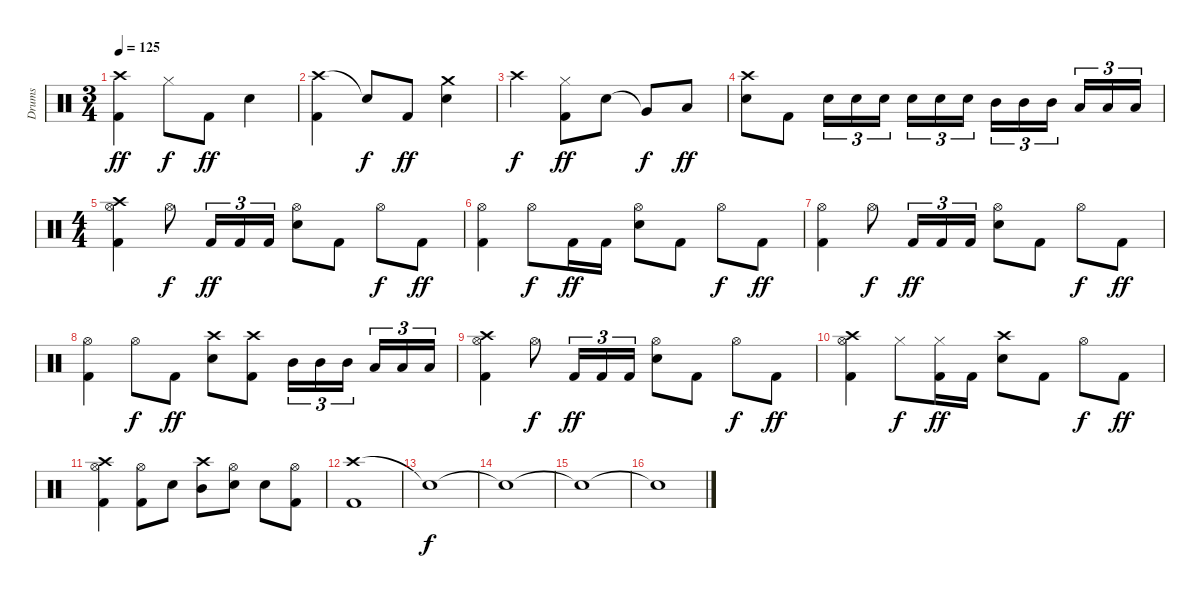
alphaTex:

\track ("Drums" "Drums") {instrument percussion}
\staff {score}
\articulation defaults
\ts (3 4)
\section ("" "")
\tempo 125
\clef neutral
\ks c
("Crash high (hit)" "Kick (hit) 2").4{dy ff} "Hi-Hat (closed)".8{dy f} "Kick (hit) 2".8{dy ff} "Snare (hit) 2".4 |
("Crash high (hit)" "Kick (hit) 2").4 "Snare (hit)"{t}.8{dy f} "Kick (hit) 2".8{dy ff} ("Crash medium (hit)" "Snare (hit) 2").4 |
"Crash high (hit)".4{dy f} ("Hi-Hat (closed)" "Kick (hit) 2").8{dy ff} "Snare (hit) 2".8 "Very Low Tom (hit)"{t}.8{dy f} "Low Floor Tom (hit)".8{dy ff} |
("Crash high (hit)" "Snare (hit) 2").8 "Kick (hit) 2".8 "Snare (hit) 2".16{tu (3 2)} "Snare (hit) 2".16{tu (3 2)} "Snare (hit) 2".16{tu (3 2) beam splitsecondary} "Snare (hit) 2".16{tu (3 2)} "Snare (hit) 2".16{tu (3 2)} "Snare (hit) 2".16{tu (3 2)} "Mid Tom (hit)".16{tu (3 2)} "Mid Tom (hit)".16{tu (3 2)} "Mid Tom (hit)".16{tu (3 2) beam splitsecondary} "Low Tom (hit)".16{tu (3 2)} "Low Tom (hit)".16{tu (3 2)} "Low Tom (hit)".16{tu (3 2)} |
\ts (4 4)
("Crash high (hit)" "Hi-Hat (open)" "Kick (hit) 2").4 "Hi-Hat (open)".8{dy f} "Kick (hit) 2".16{tu (3 2) dy ff} "Kick (hit) 2".16{tu (3 2)} "Kick (hit) 2".16{tu (3 2)} ("Hi-Hat (open)" "Snare (hit) 2").8 "Kick (hit) 2".8 "Hi-Hat (open)".8{dy f} "Kick (hit) 2".8{dy ff} |
("Hi-Hat (open)" "Kick (hit) 2").4 "Hi-Hat (open)".8{dy f} "Kick (hit) 2".16{dy ff} "Kick (hit) 2".16 ("Hi-Hat (open)" "Snare (hit) 2").8 "Kick (hit) 2".8 "Hi-Hat (open)".8{dy f} "Kick (hit) 2".8{dy ff} |
("Hi-Hat (open)" "Kick (hit) 2").4 "Hi-Hat (open)".8{dy f} "Kick (hit) 2".16{tu (3 2) dy ff} "Kick (hit) 2".16{tu (3 2)} "Kick (hit) 2".16{tu (3 2)} ("Hi-Hat (open)" "Snare (hit) 2").8 "Kick (hit) 2".8 "Hi-Hat (open)".8{dy f} "Kick (hit) 2".8{dy ff} |
("Hi-Hat (open)" "Kick (hit) 2").4 "Hi-Hat (open)".8{dy f} "Kick (hit) 2".8{dy ff} ("Crash high (hit)" "Snare (hit) 2").8 ("Crash high (hit)" "Kick (hit) 2").8 "Mid Tom (hit)".16{tu (3 2)} "Mid Tom (hit)".16{tu (3 2)} "Mid Tom (hit)".16{tu (3 2) beam splitsecondary} "Low Tom (hit)".16{tu (3 2)} "Low Tom (hit)".16{tu (3 2)} "Low Tom (hit)".16{tu (3 2)} |
("Crash high (hit)" "Hi-Hat (open)" "Kick (hit) 2").4 "Hi-Hat (open)".8{dy f} "Kick (hit) 2".16{tu (3 2) dy ff} "Kick (hit) 2".16{tu (3 2)} "Kick (hit) 2".16{tu (3 2)} ("Hi-Hat (open)" "Snare (hit) 2").8 "Kick (hit) 2".8 "Hi-Hat (open)".8{dy f} "Kick (hit) 2".8{dy ff} |
("Crash high (hit)" "Hi-Hat (open)" "Kick (hit) 2").4 "Hi-Hat (closed)".8{dy f} ("Hi-Hat (closed)" "Kick (hit) 2").16{dy ff} "Kick (hit) 2".16 ("Crash high (hit)" "Snare (hit) 2").8 "Kick (hit) 2".8 "Hi-Hat (open)".8{dy f} "Kick (hit) 2".8{dy ff} |
("Crash high (hit)" "Hi-Hat (open)" "Kick (hit) 2").4 ("Hi-Hat (open)" "Kick (hit) 2").8 "Snare (hit) 2".8 ("Crash high (hit)" "Mid Tom (hit)").8 ("Hi-Hat (open)" "Snare (hit) 2").8 "Snare (hit) 2".8 ("Hi-Hat (open)" "Kick (hit) 2").8 |
("Crash high (hit)" "Kick (hit) 2").1 |
"Snare (hit)"{t}.1{dy f} |
"Snare (hit)"{t}.1 |
"Snare (hit)"{t}.1 |
"Snare (hit)"{t}.1
